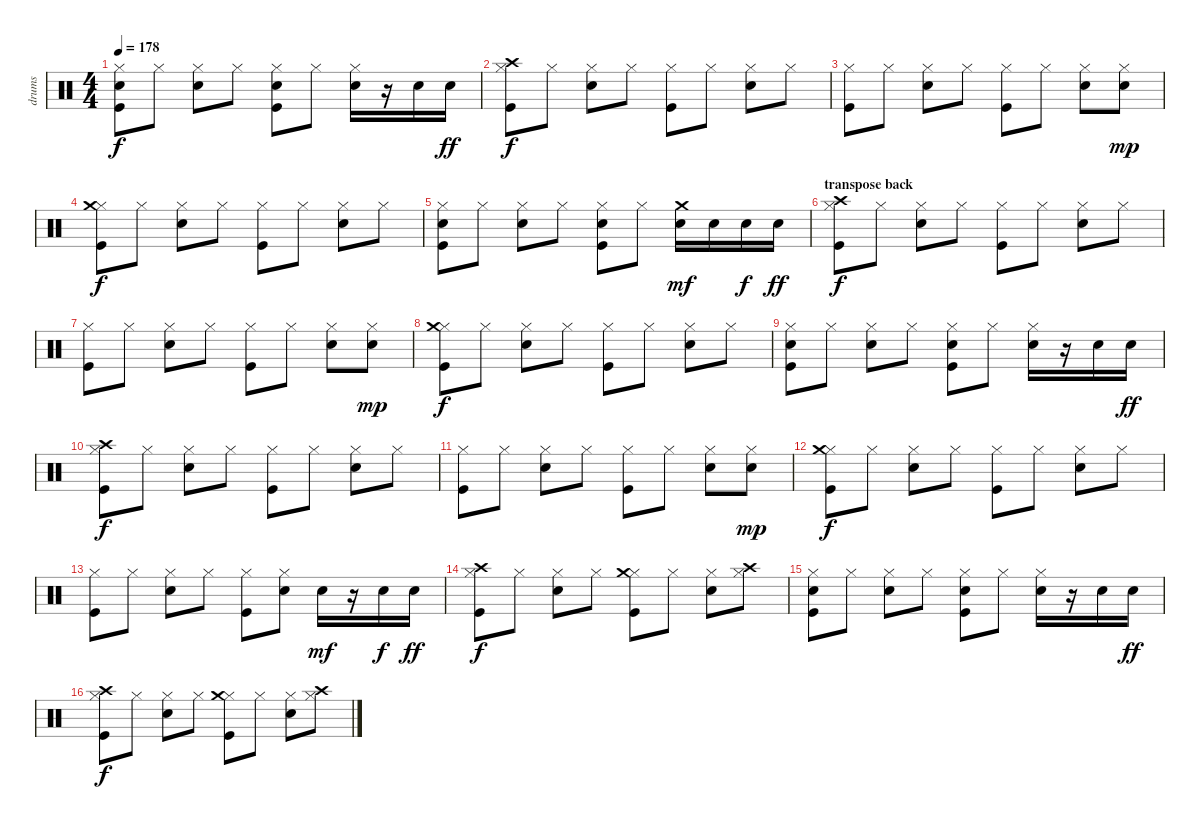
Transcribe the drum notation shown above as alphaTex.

\track ("drums" "drums") {instrument percussion}
\staff {score}
\articulation defaults
\ts (4 4)
\tempo 178
\clef neutral
\ks c
("Hi-Hat (closed)" "Electric Snare (hit)" "Kick (hit)").8{dy f} "Hi-Hat (closed)".8 ("Hi-Hat (closed)" "Electric Snare (hit)").8 "Hi-Hat (closed)".8 ("Hi-Hat (closed)" "Electric Snare (hit)" "Kick (hit)").8 "Hi-Hat (closed)".8 ("Hi-Hat (closed)" "Electric Snare (hit)").16 r.16 "Electric Snare (hit)".16 "Electric Snare (hit)".16{dy ff} |
("Hi-Hat (closed)" "Crash high (hit)" "Kick (hit)").8{dy f} "Hi-Hat (closed)".8 ("Hi-Hat (closed)" "Electric Snare (hit)").8 "Hi-Hat (closed)".8 ("Hi-Hat (closed)" "Kick (hit)").8 "Hi-Hat (closed)".8 ("Hi-Hat (closed)" "Electric Snare (hit)").8 "Hi-Hat (closed)".8 |
("Hi-Hat (closed)" "Kick (hit)").8 "Hi-Hat (closed)".8 ("Hi-Hat (closed)" "Electric Snare (hit)").8 "Hi-Hat (closed)".8 ("Hi-Hat (closed)" "Kick (hit)").8 "Hi-Hat (closed)".8 ("Hi-Hat (closed)" "Electric Snare (hit)").8 ("Hi-Hat (closed)" "Electric Snare (hit)").8{dy mp} |
("Hi-Hat (closed)" "Crash medium (hit)" "Kick (hit)").8{dy f} "Hi-Hat (closed)".8 ("Hi-Hat (closed)" "Electric Snare (hit)").8 "Hi-Hat (closed)".8 ("Hi-Hat (closed)" "Kick (hit)").8 "Hi-Hat (closed)".8 ("Hi-Hat (closed)" "Electric Snare (hit)").8 "Hi-Hat (closed)".8 |
("Hi-Hat (closed)" "Electric Snare (hit)" "Kick (hit)").8 "Hi-Hat (closed)".8 ("Hi-Hat (closed)" "Electric Snare (hit)").8 "Hi-Hat (closed)".8 ("Hi-Hat (closed)" "Electric Snare (hit)" "Kick (hit)").8 "Hi-Hat (closed)".8 ("Crash medium (hit)" "Electric Snare (hit)").16{dy mf} "Electric Snare (hit)".16 "Electric Snare (hit)".16{dy f} "Electric Snare (hit)".16{dy ff} |
\section ("" "transpose back")
("Hi-Hat (closed)" "Crash high (hit)" "Kick (hit)").8{dy f} "Hi-Hat (closed)".8 ("Hi-Hat (closed)" "Electric Snare (hit)").8 "Hi-Hat (closed)".8 ("Hi-Hat (closed)" "Kick (hit)").8 "Hi-Hat (closed)".8 ("Hi-Hat (closed)" "Electric Snare (hit)").8 "Hi-Hat (closed)".8 |
("Hi-Hat (closed)" "Kick (hit)").8 "Hi-Hat (closed)".8 ("Hi-Hat (closed)" "Electric Snare (hit)").8 "Hi-Hat (closed)".8 ("Hi-Hat (closed)" "Kick (hit)").8 "Hi-Hat (closed)".8 ("Hi-Hat (closed)" "Electric Snare (hit)").8 ("Hi-Hat (closed)" "Electric Snare (hit)").8{dy mp} |
("Hi-Hat (closed)" "Crash medium (hit)" "Kick (hit)").8{dy f} "Hi-Hat (closed)".8 ("Hi-Hat (closed)" "Electric Snare (hit)").8 "Hi-Hat (closed)".8 ("Hi-Hat (closed)" "Kick (hit)").8 "Hi-Hat (closed)".8 ("Hi-Hat (closed)" "Electric Snare (hit)").8 "Hi-Hat (closed)".8 |
("Hi-Hat (closed)" "Electric Snare (hit)" "Kick (hit)").8 "Hi-Hat (closed)".8 ("Hi-Hat (closed)" "Electric Snare (hit)").8 "Hi-Hat (closed)".8 ("Hi-Hat (closed)" "Electric Snare (hit)" "Kick (hit)").8 "Hi-Hat (closed)".8 ("Hi-Hat (closed)" "Electric Snare (hit)").16 r.16 "Electric Snare (hit)".16 "Electric Snare (hit)".16{dy ff} |
("Hi-Hat (closed)" "Crash high (hit)" "Kick (hit)").8{dy f} "Hi-Hat (closed)".8 ("Hi-Hat (closed)" "Electric Snare (hit)").8 "Hi-Hat (closed)".8 ("Hi-Hat (closed)" "Kick (hit)").8 "Hi-Hat (closed)".8 ("Hi-Hat (closed)" "Electric Snare (hit)").8 "Hi-Hat (closed)".8 |
("Hi-Hat (closed)" "Kick (hit)").8 "Hi-Hat (closed)".8 ("Hi-Hat (closed)" "Electric Snare (hit)").8 "Hi-Hat (closed)".8 ("Hi-Hat (closed)" "Kick (hit)").8 "Hi-Hat (closed)".8 ("Hi-Hat (closed)" "Electric Snare (hit)").8 ("Hi-Hat (closed)" "Electric Snare (hit)").8{dy mp} |
("Hi-Hat (closed)" "Crash medium (hit)" "Kick (hit)").8{dy f} "Hi-Hat (closed)".8 ("Hi-Hat (closed)" "Electric Snare (hit)").8 "Hi-Hat (closed)".8 ("Hi-Hat (closed)" "Kick (hit)").8 "Hi-Hat (closed)".8 ("Hi-Hat (closed)" "Electric Snare (hit)").8 "Hi-Hat (closed)".8 |
("Hi-Hat (closed)" "Kick (hit)").8 "Hi-Hat (closed)".8 ("Hi-Hat (closed)" "Electric Snare (hit)").8 "Hi-Hat (closed)".8 ("Hi-Hat (closed)" "Kick (hit)").8 ("Hi-Hat (closed)" "Electric Snare (hit)").8 "Electric Snare (hit)".16{dy mf} r.16 "Electric Snare (hit)".16{dy f} "Electric Snare (hit)".16{dy ff} |
("Hi-Hat (closed)" "Crash high (hit)" "Kick (hit)").8{dy f} "Hi-Hat (closed)".8 ("Hi-Hat (closed)" "Electric Snare (hit)").8 "Hi-Hat (closed)".8 ("Hi-Hat (closed)" "Crash medium (hit)" "Kick (hit)").8 "Hi-Hat (closed)".8 ("Hi-Hat (closed)" "Electric Snare (hit)").8 ("Hi-Hat (closed)" "Crash high (hit)").8 |
("Hi-Hat (closed)" "Electric Snare (hit)" "Kick (hit)").8 "Hi-Hat (closed)".8 ("Hi-Hat (closed)" "Electric Snare (hit)").8 "Hi-Hat (closed)".8 ("Hi-Hat (closed)" "Electric Snare (hit)" "Kick (hit)").8 "Hi-Hat (closed)".8 ("Hi-Hat (closed)" "Electric Snare (hit)").16 r.16 "Electric Snare (hit)".16 "Electric Snare (hit)".16{dy ff} |
("Hi-Hat (closed)" "Crash high (hit)" "Kick (hit)").8{dy f} "Hi-Hat (closed)".8 ("Hi-Hat (closed)" "Electric Snare (hit)").8 "Hi-Hat (closed)".8 ("Hi-Hat (closed)" "Crash medium (hit)" "Kick (hit)").8 "Hi-Hat (closed)".8 ("Hi-Hat (closed)" "Electric Snare (hit)").8 ("Hi-Hat (closed)" "Crash high (hit)").8
